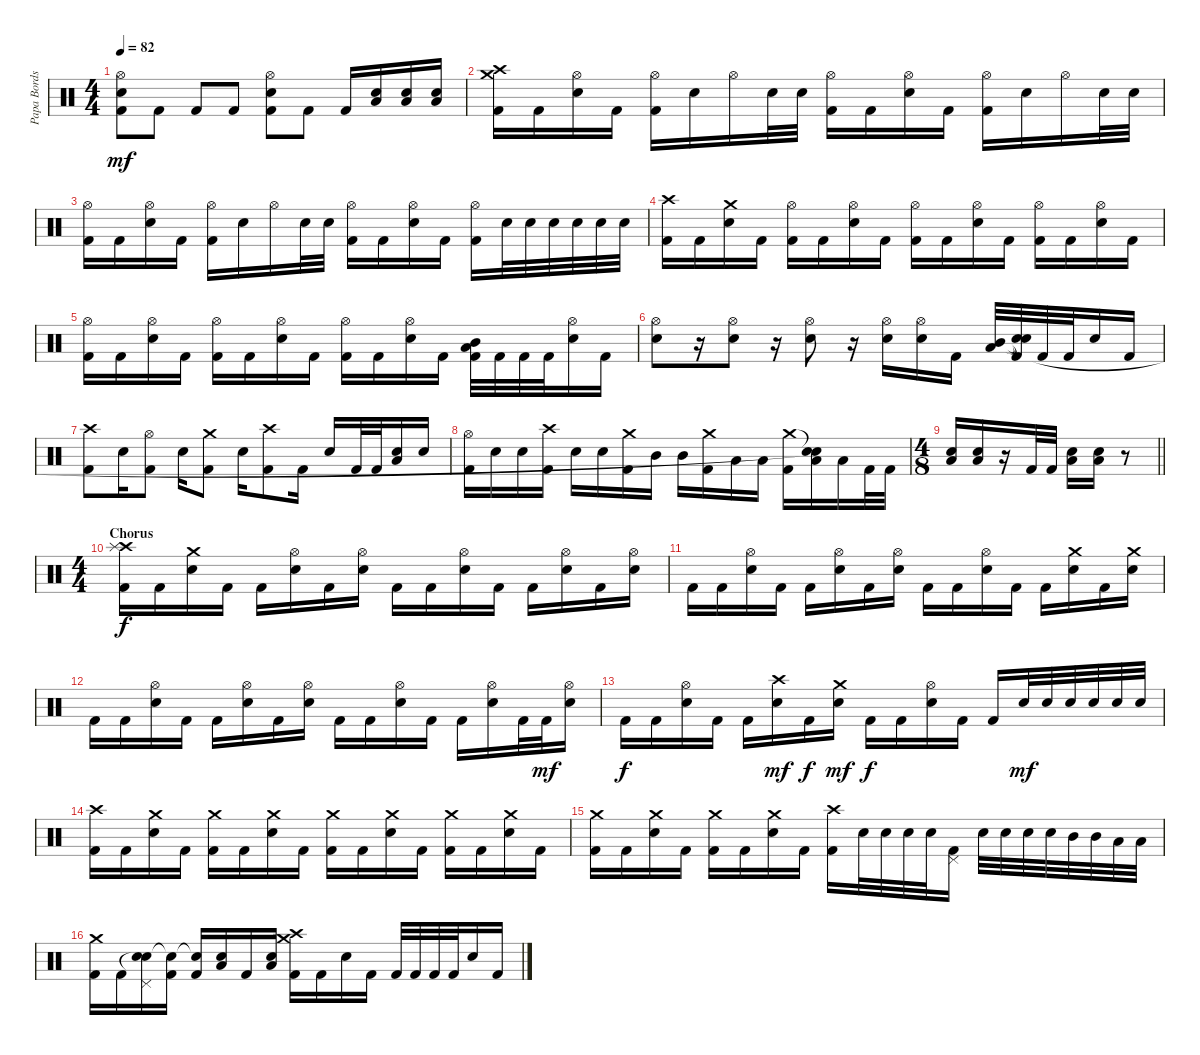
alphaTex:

\track ("Papa Bords" "Papa Bords") {instrument percussion}
\staff {score}
\articulation defaults
\ts (4 4)
\tempo 82
\clef neutral
\ks c
("Hi-Hat (open)" "Electric Snare (hit)" "Kick (hit) 2").8{dy mf} "Kick (hit) 2".8 "Kick (hit) 2".8 "Kick (hit) 2".8 ("Hi-Hat (open)" "Electric Snare (hit)" "Kick (hit) 2").8 "Kick (hit) 2".8 "Kick (hit) 2".16 ("Low Floor Tom (hit)" "Electric Snare (hit)").16 ("Low Floor Tom (hit)" "Electric Snare (hit)").16 ("Low Floor Tom (hit)" "Electric Snare (hit)").16 |
("Crash high (hit)" "Crash medium (hit)" "Kick (hit) 2").16 "Kick (hit) 2".16 ("Hi-Hat (open)" "Electric Snare (hit)").16 "Kick (hit) 2".16 ("Hi-Hat (open)" "Kick (hit) 2").16 "Electric Snare (hit)".16 "Hi-Hat (open)".16 "Electric Snare (hit)".32 "Electric Snare (hit)".32 ("Hi-Hat (open)" "Kick (hit) 2").16 "Kick (hit) 2".16 ("Hi-Hat (open)" "Electric Snare (hit)").16 "Kick (hit) 2".16 ("Hi-Hat (open)" "Kick (hit) 2").16 "Electric Snare (hit)".16 "Hi-Hat (open)".16 "Electric Snare (hit)".32 "Electric Snare (hit)".32 |
("Hi-Hat (open)" "Kick (hit) 2").16 "Kick (hit) 2".16 ("Hi-Hat (open)" "Electric Snare (hit)").16 "Kick (hit) 2".16 ("Hi-Hat (open)" "Kick (hit) 2").16 "Electric Snare (hit)".16 "Hi-Hat (open)".16 "Electric Snare (hit)".32 "Electric Snare (hit)".32 ("Hi-Hat (open)" "Kick (hit) 2").16 "Kick (hit) 2".16 ("Hi-Hat (open)" "Electric Snare (hit)").16 "Kick (hit) 2".16 ("Hi-Hat (open)" "Kick (hit) 2").16 "Electric Snare (hit)".32 "Electric Snare (hit)".32 "Electric Snare (hit)".32 "Electric Snare (hit)".32 "Electric Snare (hit)".32 "Electric Snare (hit)".32 |
("Crash high (hit)" "Kick (hit) 2").16 "Kick (hit) 2".16 ("Crash medium (hit)" "Electric Snare (hit)").16 "Kick (hit) 2".16 ("Hi-Hat (open)" "Kick (hit) 2").16 "Kick (hit) 2".16 ("Hi-Hat (open)" "Electric Snare (hit)").16 "Kick (hit) 2".16 ("Hi-Hat (open)" "Kick (hit) 2").16 "Kick (hit) 2".16 ("Hi-Hat (open)" "Electric Snare (hit)").16 "Kick (hit) 2".16 ("Hi-Hat (open)" "Kick (hit) 2").16 "Kick (hit) 2".16 ("Hi-Hat (open)" "Electric Snare (hit)").16 "Kick (hit) 2".16 |
("Hi-Hat (open)" "Kick (hit) 2").16 "Kick (hit) 2".16 ("Hi-Hat (open)" "Electric Snare (hit)").16 "Kick (hit) 2".16 ("Hi-Hat (open)" "Kick (hit) 2").16 "Kick (hit) 2".16 ("Hi-Hat (open)" "Electric Snare (hit)").16 "Kick (hit) 2".16 ("Hi-Hat (open)" "Kick (hit) 2").16 "Kick (hit) 2".16 ("Hi-Hat (open)" "Electric Snare (hit)").16 "Kick (hit) 2".16 ("Low Floor Tom (hit)" "Mid Tom (hit)" "Kick (hit) 2").32 "Kick (hit) 2".32 "Kick (hit) 2".32 "Kick (hit) 2".32 ("Hi-Hat (open)" "Electric Snare (hit)").16 "Kick (hit) 2".16 |
("Hi-Hat (open)" "Electric Snare (hit)").8 r.16 ("Hi-Hat (open)" "Electric Snare (hit)").8 r.16 ("Hi-Hat (open)" "Electric Snare (hit)").8 r.16 ("Hi-Hat (open)" "Electric Snare (hit)").16 ("Hi-Hat (open)" "Electric Snare (hit)").16 "Kick (hit) 2".16 ("Low Floor Tom (hit)" "Mid Tom (hit)").32 ("Snare (hit)"{t} "Snare (hit)"{t} "Kick (hit) 2").32 "Kick (hit) 2".32 "Kick (hit) 2".32 "Electric Snare (hit)".16 "Kick (hit) 2".16 |
("Crash high (hit)" "Kick (hit) 2").8 "Electric Snare (hit)".16 ("Hi-Hat (open)" "Kick (hit) 2").8 "Electric Snare (hit)".16 ("Crash medium (hit)" "Kick (hit) 2").8 "Electric Snare (hit)".16 ("Crash high (hit)" "Kick (hit) 2").8 "Kick (hit) 2".16 "Electric Snare (hit)".16 "Kick (hit) 2".32 "Kick (hit) 2".32 ("Low Floor Tom (hit)" "Electric Snare (hit)").16 "Electric Snare (hit)".16 |
("Hi-Hat (open)" "Kick (hit) 2").16 "Electric Snare (hit)".16 "Electric Snare (hit)".16 ("Crash high (hit)" "Kick (hit) 2").16 "Electric Snare (hit)".16 "Electric Snare (hit)".16 ("Crash medium (hit)" "Kick (hit) 2").16 "Mid Tom (hit)".16 "Mid Tom (hit)".16 ("Crash medium (hit)" "Kick (hit) 2").16 "Low Tom (hit)".16 "Low Tom (hit)".16 ("Crash medium (hit)" "Kick (hit) 2").16 ("Snare (hit)"{t} "Low Floor Tom (hit)" "Snare (hit)"{t}).16 "Low Floor Tom (hit)".16 "Kick (hit) 2".32 "Kick (hit) 2".32 |
\ts (4 8)
\barLineRight lightlight
("Low Floor Tom (hit)" "Electric Snare (hit)").16 ("Low Floor Tom (hit)" "Electric Snare (hit)").16 r.16 "Kick (hit) 2".32 "Kick (hit) 2".32 ("Low Floor Tom (hit)" "Electric Snare (hit)").16 ("Low Floor Tom (hit)" "Electric Snare (hit)").16 r.8 |
\ts (4 4)
\section ("" "Chorus")
("Crash high (hit)" "Splash (hit)" "Kick (hit) 2").16{dy f} "Kick (hit) 2".16 ("Crash medium (hit)" "Electric Snare (hit)").16 "Kick (hit) 2".16 "Kick (hit) 2".16 ("Hi-Hat (open)" "Electric Snare (hit)").16 "Kick (hit) 2".16 ("Hi-Hat (open)" "Electric Snare (hit)").16 "Kick (hit) 2".16 "Kick (hit) 2".16 ("Hi-Hat (open)" "Electric Snare (hit)").16 "Kick (hit) 2".16 "Kick (hit) 2".16 ("Hi-Hat (open)" "Electric Snare (hit)").16 "Kick (hit) 2".16 ("Hi-Hat (open)" "Electric Snare (hit)").16 |
"Kick (hit) 2".16 "Kick (hit) 2".16 ("Hi-Hat (open)" "Electric Snare (hit)").16 "Kick (hit) 2".16 "Kick (hit) 2".16 ("Hi-Hat (open)" "Electric Snare (hit)").16 "Kick (hit) 2".16 ("Hi-Hat (open)" "Electric Snare (hit)").16 "Kick (hit) 2".16 "Kick (hit) 2".16 ("Hi-Hat (open)" "Electric Snare (hit)").16 "Kick (hit) 2".16 "Kick (hit) 2".16 ("Crash medium (hit)" "Electric Snare (hit)").16 "Kick (hit) 2".16 ("Crash medium (hit)" "Electric Snare (hit)").16 |
"Kick (hit) 2".16 "Kick (hit) 2".16 ("Hi-Hat (open)" "Electric Snare (hit)").16 "Kick (hit) 2".16 "Kick (hit) 2".16 ("Hi-Hat (open)" "Electric Snare (hit)").16 "Kick (hit) 2".16 ("Hi-Hat (open)" "Electric Snare (hit)").16 "Kick (hit) 2".16 "Kick (hit) 2".16 ("Hi-Hat (open)" "Electric Snare (hit)").16 "Kick (hit) 2".16 "Kick (hit) 2".16 ("Hi-Hat (open)" "Electric Snare (hit)").16 "Kick (hit) 2".32 "Kick (hit) 2".32{dy mf} ("Hi-Hat (open)" "Electric Snare (hit)").16 |
"Kick (hit) 2".16{dy f} "Kick (hit) 2".16 ("Hi-Hat (open)" "Electric Snare (hit)").16 "Kick (hit) 2".16 "Kick (hit) 2".16 ("Crash high (hit)" "Electric Snare (hit)").16{dy mf} "Kick (hit) 2".16{dy f} ("Crash medium (hit)" "Electric Snare (hit)").16{dy mf} "Kick (hit) 2".16{dy f} "Kick (hit) 2".16 ("Hi-Hat (open)" "Electric Snare (hit)").16 "Kick (hit) 2".16 "Kick (hit) 2".16 "Electric Snare (hit)".32{dy mf} "Electric Snare (hit)".32 "Electric Snare (hit)".32 "Electric Snare (hit)".32 "Electric Snare (hit)".32 "Electric Snare (hit)".32 |
("Crash high (hit)" "Kick (hit) 2").16 "Kick (hit) 2".16 ("Crash medium (hit)" "Electric Snare (hit)").16 "Kick (hit) 2".16 ("Crash medium (hit)" "Kick (hit) 2").16 "Kick (hit) 2".16 ("Crash medium (hit)" "Electric Snare (hit)").16 "Kick (hit) 2".16 ("Crash medium (hit)" "Kick (hit) 2").16 "Kick (hit) 2".16 ("Crash medium (hit)" "Electric Snare (hit)").16 "Kick (hit) 2".16 ("Crash medium (hit)" "Kick (hit) 2").16 "Kick (hit) 2".16 ("Crash medium (hit)" "Electric Snare (hit)").16 "Kick (hit) 2".16 |
("Crash medium (hit)" "Kick (hit) 2").16 "Kick (hit) 2".16 ("Crash medium (hit)" "Electric Snare (hit)").16 "Kick (hit) 2".16 ("Crash medium (hit)" "Kick (hit) 2").16 "Kick (hit) 2".16 ("Crash medium (hit)" "Electric Snare (hit)").16 "Kick (hit) 2".16 ("Crash high (hit)" "Kick (hit) 2").16 "Electric Snare (hit)".32 "Electric Snare (hit)".32 "Electric Snare (hit)".32 "Electric Snare (hit)".32 ("Pedal Hi-Hat (hit)" "Kick (hit) 2").16 "Electric Snare (hit)".32 "Electric Snare (hit)".32 "Electric Snare (hit)".32 "Electric Snare (hit)".32 "Mid Tom (hit)".32 "Mid Tom (hit)".32 "Low Tom (hit)".32 "Low Floor Tom (hit)".32 |
("Crash medium (hit)" "Kick (hit) 2").16 "Kick (hit) 2".16 ("Snare (hit)"{t} "Pedal Hi-Hat (hit)" "Electric Snare (hit)").16 ("Snare (hit)"{t} "Kick (hit) 2").16 ("Snare (hit)"{t} "Kick (hit) 2").16 ("Low Floor Tom (hit)" "Electric Snare (hit)").16 "Kick (hit) 2".16 ("Low Floor Tom (hit)" "Electric Snare (hit)").16 ("Crash high (hit)" "Crash medium (hit)" "Kick (hit) 2").16 "Kick (hit) 2".16 "Electric Snare (hit)".16 "Kick (hit) 2".16 "Kick (hit) 2".32 "Kick (hit) 2".32 "Kick (hit) 2".32 "Kick (hit) 2".32 "Electric Snare (hit)".16 "Kick (hit) 2".16
